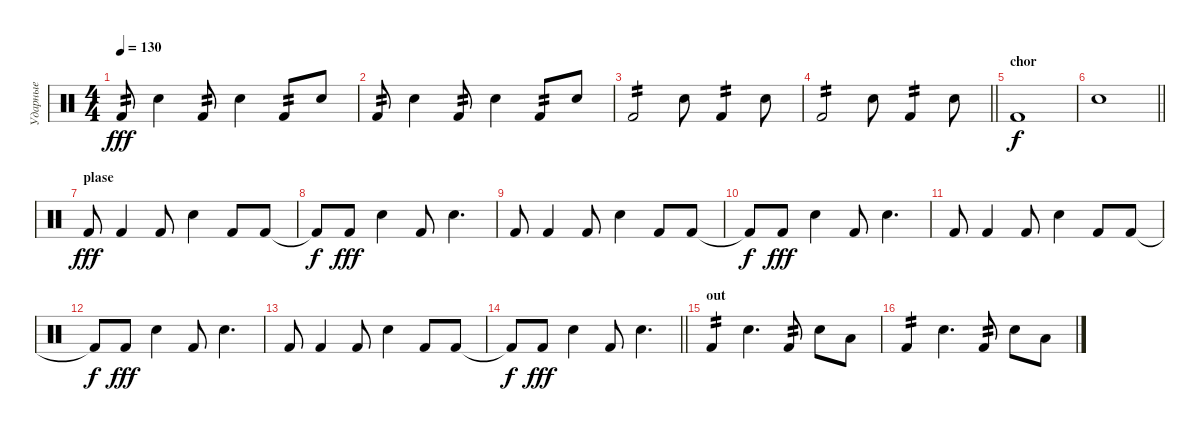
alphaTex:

\track ("Ударные" "Ударные") {instrument percussion}
\staff {score}
\articulation defaults
\ts (4 4)
\tempo 130
\clef neutral
\ks c "Kick (hit) 2".8{tp 2 dy fff} "Snare (hit) 2".4 "Kick (hit) 2".8{tp 2} "Snare (hit) 2".4 "Kick (hit) 2".8{tp 2} "Snare (hit) 2".8
|
"Kick (hit) 2".8{tp 2} "Snare (hit) 2".4 "Kick (hit) 2".8{tp 2} "Snare (hit) 2".4 "Kick (hit) 2".8{tp 2} "Snare (hit) 2".8 |
"Kick (hit) 2".2{tp 2} "Snare (hit) 2".8 "Kick (hit) 2".4{tp 2} "Snare (hit) 2".8 |
\barLineRight lightlight "Kick (hit) 2".2{tp 2} "Snare (hit) 2".8 "Kick (hit) 2".4{tp 2} "Snare (hit) 2".8
|
\section ("" "chor")
"Kick (hit) 2".1{dy f} |
\barLineRight lightlight "Snare (hit) 2".1
|
\section ("" "plase")
"Kick (hit) 2".8{dy fff} "Kick (hit) 2".4 "Kick (hit) 2".8 "Snare (hit) 2".4 "Kick (hit) 2".8 "Kick (hit) 2".8 |
"Kick (hit) 2"{t}.8{dy f} "Kick (hit) 2".8{dy fff} "Snare (hit) 2".4 "Kick (hit) 2".8 "Snare (hit) 2".4{d} |
"Kick (hit) 2".8 "Kick (hit) 2".4 "Kick (hit) 2".8 "Snare (hit) 2".4 "Kick (hit) 2".8 "Kick (hit) 2".8 |
"Kick (hit) 2"{t}.8{dy f} "Kick (hit) 2".8{dy fff} "Snare (hit) 2".4 "Kick (hit) 2".8 "Snare (hit) 2".4{d} |
"Kick (hit) 2".8 "Kick (hit) 2".4 "Kick (hit) 2".8 "Snare (hit) 2".4 "Kick (hit) 2".8 "Kick (hit) 2".8 |
"Kick (hit) 2"{t}.8{dy f} "Kick (hit) 2".8{dy fff} "Snare (hit) 2".4 "Kick (hit) 2".8 "Snare (hit) 2".4{d} |
"Kick (hit) 2".8 "Kick (hit) 2".4 "Kick (hit) 2".8 "Snare (hit) 2".4 "Kick (hit) 2".8 "Kick (hit) 2".8 |
\barLineRight lightlight "Kick (hit) 2"{t}.8{dy f} "Kick (hit) 2".8{dy fff} "Snare (hit) 2".4 "Kick (hit) 2".8 "Snare (hit) 2".4{d}
|
\section ("" "out")
"Kick (hit) 2".4{tp 2} "Snare (hit) 2".4{d} "Kick (hit) 2".8{tp 2} "Snare (hit) 2".8 "Low Floor Tom (hit)".8 |
"Kick (hit) 2".4{tp 2} "Snare (hit) 2".4{d} "Kick (hit) 2".8{tp 2} "Snare (hit) 2".8 "Low Tom (hit)".8
